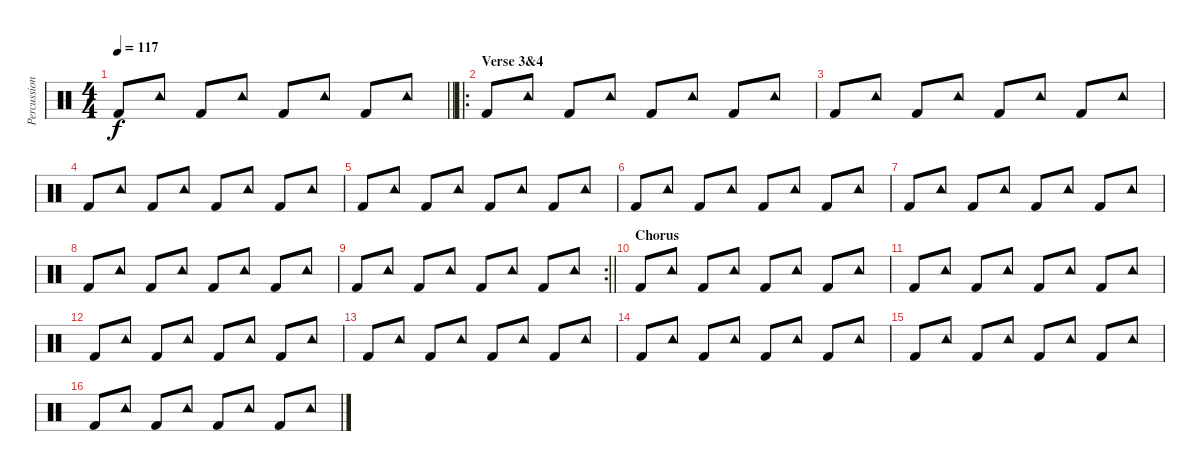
\track ("Percussion" "Percussion") {instrument percussion}
\staff {score}
\articulation defaults
\ts (4 4)
\tempo 117
\clef neutral
\barLineRight lightlight
\ks c "Kick (hit) 2".8{dy f} "Tambourine (hit)".8 "Kick (hit) 2".8 "Tambourine (hit)".8 "Kick (hit) 2".8 "Tambourine (hit)".8 "Kick (hit) 2".8 "Tambourine (hit)".8
|
\ro
\section ("" "Verse 3&4")
"Kick (hit) 2".8 "Tambourine (hit)".8 "Kick (hit) 2".8 "Tambourine (hit)".8 "Kick (hit) 2".8 "Tambourine (hit)".8 "Kick (hit) 2".8 "Tambourine (hit)".8 |
"Kick (hit) 2".8 "Tambourine (hit)".8 "Kick (hit) 2".8 "Tambourine (hit)".8 "Kick (hit) 2".8 "Tambourine (hit)".8 "Kick (hit) 2".8 "Tambourine (hit)".8 |
"Kick (hit) 2".8 "Tambourine (hit)".8 "Kick (hit) 2".8 "Tambourine (hit)".8 "Kick (hit) 2".8 "Tambourine (hit)".8 "Kick (hit) 2".8 "Tambourine (hit)".8 |
"Kick (hit) 2".8 "Tambourine (hit)".8 "Kick (hit) 2".8 "Tambourine (hit)".8 "Kick (hit) 2".8 "Tambourine (hit)".8 "Kick (hit) 2".8 "Tambourine (hit)".8 |
"Kick (hit) 2".8 "Tambourine (hit)".8 "Kick (hit) 2".8 "Tambourine (hit)".8 "Kick (hit) 2".8 "Tambourine (hit)".8 "Kick (hit) 2".8 "Tambourine (hit)".8 |
"Kick (hit) 2".8 "Tambourine (hit)".8 "Kick (hit) 2".8 "Tambourine (hit)".8 "Kick (hit) 2".8 "Tambourine (hit)".8 "Kick (hit) 2".8 "Tambourine (hit)".8 |
"Kick (hit) 2".8 "Tambourine (hit)".8 "Kick (hit) 2".8 "Tambourine (hit)".8 "Kick (hit) 2".8 "Tambourine (hit)".8 "Kick (hit) 2".8 "Tambourine (hit)".8 |
\rc 2
\barLineRight lightlight "Kick (hit) 2".8 "Tambourine (hit)".8 "Kick (hit) 2".8 "Tambourine (hit)".8 "Kick (hit) 2".8 "Tambourine (hit)".8 "Kick (hit) 2".8 "Tambourine (hit)".8
|
\section ("" "Chorus")
"Kick (hit) 2".8 "Tambourine (hit)".8 "Kick (hit) 2".8 "Tambourine (hit)".8 "Kick (hit) 2".8 "Tambourine (hit)".8 "Kick (hit) 2".8 "Tambourine (hit)".8 |
"Kick (hit) 2".8 "Tambourine (hit)".8 "Kick (hit) 2".8 "Tambourine (hit)".8 "Kick (hit) 2".8 "Tambourine (hit)".8 "Kick (hit) 2".8 "Tambourine (hit)".8 |
"Kick (hit) 2".8 "Tambourine (hit)".8 "Kick (hit) 2".8 "Tambourine (hit)".8 "Kick (hit) 2".8 "Tambourine (hit)".8 "Kick (hit) 2".8 "Tambourine (hit)".8 |
"Kick (hit) 2".8 "Tambourine (hit)".8 "Kick (hit) 2".8 "Tambourine (hit)".8 "Kick (hit) 2".8 "Tambourine (hit)".8 "Kick (hit) 2".8 "Tambourine (hit)".8 |
"Kick (hit) 2".8 "Tambourine (hit)".8 "Kick (hit) 2".8 "Tambourine (hit)".8 "Kick (hit) 2".8 "Tambourine (hit)".8 "Kick (hit) 2".8 "Tambourine (hit)".8 |
"Kick (hit) 2".8 "Tambourine (hit)".8 "Kick (hit) 2".8 "Tambourine (hit)".8 "Kick (hit) 2".8 "Tambourine (hit)".8 "Kick (hit) 2".8 "Tambourine (hit)".8 |
"Kick (hit) 2".8 "Tambourine (hit)".8 "Kick (hit) 2".8 "Tambourine (hit)".8 "Kick (hit) 2".8 "Tambourine (hit)".8 "Kick (hit) 2".8 "Tambourine (hit)".8
